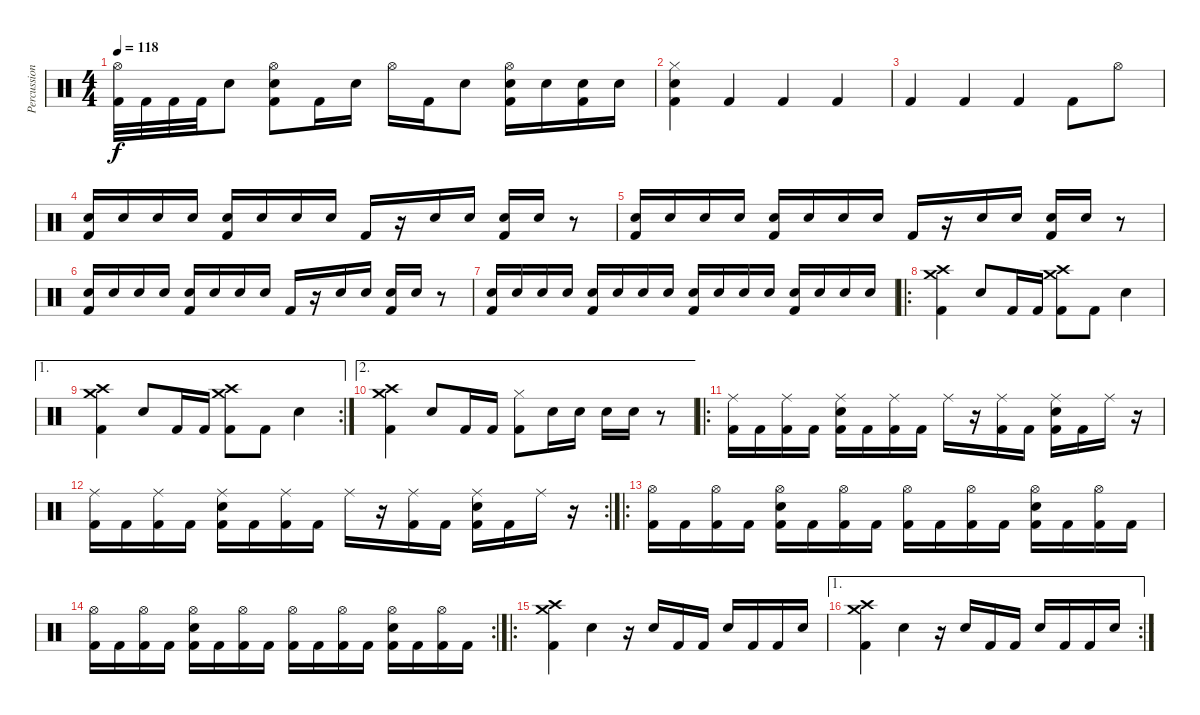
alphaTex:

\track ("Percussion" "Percussion") {instrument percussion}
\staff {score}
\articulation defaults
\ts (4 4)
\tempo 118
\clef neutral
\ks c
("Hi-Hat (open)" "Kick (hit) 2").32{dy f} "Kick (hit) 2".32 "Kick (hit) 2".32 "Kick (hit) 2".32 "Snare (hit) 2".8 ("Hi-Hat (open)" "Snare (hit) 2" "Kick (hit) 2").8 "Kick (hit) 2".16 "Snare (hit) 2".16 "Hi-Hat (open)".16 "Kick (hit) 2".16 "Snare (hit) 2".8 ("Hi-Hat (open)" "Snare (hit) 2" "Kick (hit) 2").16 "Snare (hit) 2".16 ("Snare (hit) 2" "Kick (hit) 2").16 "Snare (hit) 2".16 |
("Hi-Hat (closed)" "Snare (hit) 2" "Kick (hit) 2").4 "Kick (hit) 2".4 "Kick (hit) 2".4 "Kick (hit) 2".4 |
"Kick (hit) 2".4 "Kick (hit) 2".4 "Kick (hit) 2".4 "Kick (hit) 2".8 "Hi-Hat (open)".8 |
("Snare (hit) 2" "Kick (hit) 2").16 "Snare (hit) 2".16 "Snare (hit) 2".16 "Snare (hit) 2".16 ("Snare (hit) 2" "Kick (hit) 2").16 "Snare (hit) 2".16 "Snare (hit) 2".16 "Snare (hit) 2".16 "Kick (hit) 2".16 r.16 "Snare (hit) 2".16 "Snare (hit) 2".16 ("Snare (hit) 2" "Kick (hit) 2").16 "Snare (hit) 2".16 r.8 |
("Snare (hit) 2" "Kick (hit) 2").16 "Snare (hit) 2".16 "Snare (hit) 2".16 "Snare (hit) 2".16 ("Snare (hit) 2" "Kick (hit) 2").16 "Snare (hit) 2".16 "Snare (hit) 2".16 "Snare (hit) 2".16 "Kick (hit) 2".16 r.16 "Snare (hit) 2".16 "Snare (hit) 2".16 ("Snare (hit) 2" "Kick (hit) 2").16 "Snare (hit) 2".16 r.8 |
("Snare (hit) 2" "Kick (hit) 2").16 "Snare (hit) 2".16 "Snare (hit) 2".16 "Snare (hit) 2".16 ("Snare (hit) 2" "Kick (hit) 2").16 "Snare (hit) 2".16 "Snare (hit) 2".16 "Snare (hit) 2".16 "Kick (hit) 2".16 r.16 "Snare (hit) 2".16 "Snare (hit) 2".16 ("Snare (hit) 2" "Kick (hit) 2").16 "Snare (hit) 2".16 r.8 |
("Snare (hit) 2" "Kick (hit) 2").16 "Snare (hit) 2".16 "Snare (hit) 2".16 "Snare (hit) 2".16 ("Snare (hit) 2" "Kick (hit) 2").16 "Snare (hit) 2".16 "Snare (hit) 2".16 "Snare (hit) 2".16 ("Snare (hit) 2" "Kick (hit) 2").16 "Snare (hit) 2".16 "Snare (hit) 2".16 "Snare (hit) 2".16 ("Snare (hit) 2" "Kick (hit) 2").16 "Snare (hit) 2".16 "Snare (hit) 2".16 "Snare (hit) 2".16 |
\ro
("Crash medium (hit)" "Crash high (hit)" "Kick (hit) 2").4 "Snare (hit) 2".8 "Kick (hit) 2".16 "Kick (hit) 2".16 ("Crash medium (hit)" "Crash high (hit)" "Kick (hit) 2").8 "Kick (hit) 2".8 "Snare (hit) 2".4 |
\ae 1
\rc 2
("Crash medium (hit)" "Crash high (hit)" "Kick (hit) 2").4 "Snare (hit) 2".8 "Kick (hit) 2".16 "Kick (hit) 2".16 ("Crash medium (hit)" "Crash high (hit)" "Kick (hit) 2").8 "Kick (hit) 2".8 "Snare (hit) 2".4 |
\ae 2
("Crash medium (hit)" "Crash high (hit)" "Kick (hit) 2").4 "Snare (hit) 2".8 "Kick (hit) 2".16 "Kick (hit) 2".16 ("Hi-Hat (closed)" "Kick (hit) 2").8 "Snare (hit) 2".16 "Snare (hit) 2".16 "Snare (hit) 2".16 "Snare (hit) 2".16 r.8 |
\ro
("Ride (middle)" "Kick (hit) 2").16 "Kick (hit) 2".16 ("Ride (middle)" "Kick (hit) 2").16 "Kick (hit) 2".16 ("Ride (middle)" "Snare (hit) 2" "Kick (hit) 2").16 "Kick (hit) 2".16 ("Ride (middle)" "Kick (hit) 2").16 "Kick (hit) 2".16 "Ride (middle)".16 r.16 ("Ride (middle)" "Kick (hit) 2").16 "Kick (hit) 2".16 ("Ride (middle)" "Snare (hit) 2" "Kick (hit) 2").16 "Kick (hit) 2".16 "Ride (middle)".16 r.16 |
\rc 2
("Ride (middle)" "Kick (hit) 2").16 "Kick (hit) 2".16 ("Ride (middle)" "Kick (hit) 2").16 "Kick (hit) 2".16 ("Ride (middle)" "Snare (hit) 2" "Kick (hit) 2").16 "Kick (hit) 2".16 ("Ride (middle)" "Kick (hit) 2").16 "Kick (hit) 2".16 "Ride (middle)".16 r.16 ("Ride (middle)" "Kick (hit) 2").16 "Kick (hit) 2".16 ("Ride (middle)" "Snare (hit) 2" "Kick (hit) 2").16 "Kick (hit) 2".16 "Ride (middle)".16 r.16 |
\ro
("Hi-Hat (open)" "Kick (hit) 2").16 "Kick (hit) 2".16 ("Hi-Hat (open)" "Kick (hit) 2").16 "Kick (hit) 2".16 ("Hi-Hat (open)" "Snare (hit) 2" "Kick (hit) 2").16 "Kick (hit) 2".16 ("Hi-Hat (open)" "Kick (hit) 2").16 "Kick (hit) 2".16 ("Hi-Hat (open)" "Kick (hit) 2").16 "Kick (hit) 2".16 ("Hi-Hat (open)" "Kick (hit) 2").16 "Kick (hit) 2".16 ("Hi-Hat (open)" "Snare (hit) 2" "Kick (hit) 2").16 "Kick (hit) 2".16 ("Hi-Hat (open)" "Kick (hit) 2").16 "Kick (hit) 2".16 |
\rc 2
("Hi-Hat (open)" "Kick (hit) 2").16 "Kick (hit) 2".16 ("Hi-Hat (open)" "Kick (hit) 2").16 "Kick (hit) 2".16 ("Hi-Hat (open)" "Snare (hit) 2" "Kick (hit) 2").16 "Kick (hit) 2".16 ("Hi-Hat (open)" "Kick (hit) 2").16 "Kick (hit) 2".16 ("Hi-Hat (open)" "Kick (hit) 2").16 "Kick (hit) 2".16 ("Hi-Hat (open)" "Kick (hit) 2").16 "Kick (hit) 2".16 ("Hi-Hat (open)" "Snare (hit) 2" "Kick (hit) 2").16 "Kick (hit) 2".16 ("Hi-Hat (open)" "Kick (hit) 2").16 "Kick (hit) 2".16 |
\ro
("Crash medium (hit)" "Crash high (hit)" "Kick (hit) 2").4 "Snare (hit) 2".4 r.16 "Snare (hit) 2".16 "Kick (hit) 2".16 "Kick (hit) 2".16 "Snare (hit) 2".16 "Kick (hit) 2".16 "Kick (hit) 2".16 "Snare (hit) 2".16 |
\ae 1
\rc 2
("Crash medium (hit)" "Crash high (hit)" "Kick (hit) 2").4 "Snare (hit) 2".4 r.16 "Snare (hit) 2".16 "Kick (hit) 2".16 "Kick (hit) 2".16 "Snare (hit) 2".16 "Kick (hit) 2".16 "Kick (hit) 2".16 "Snare (hit) 2".16
